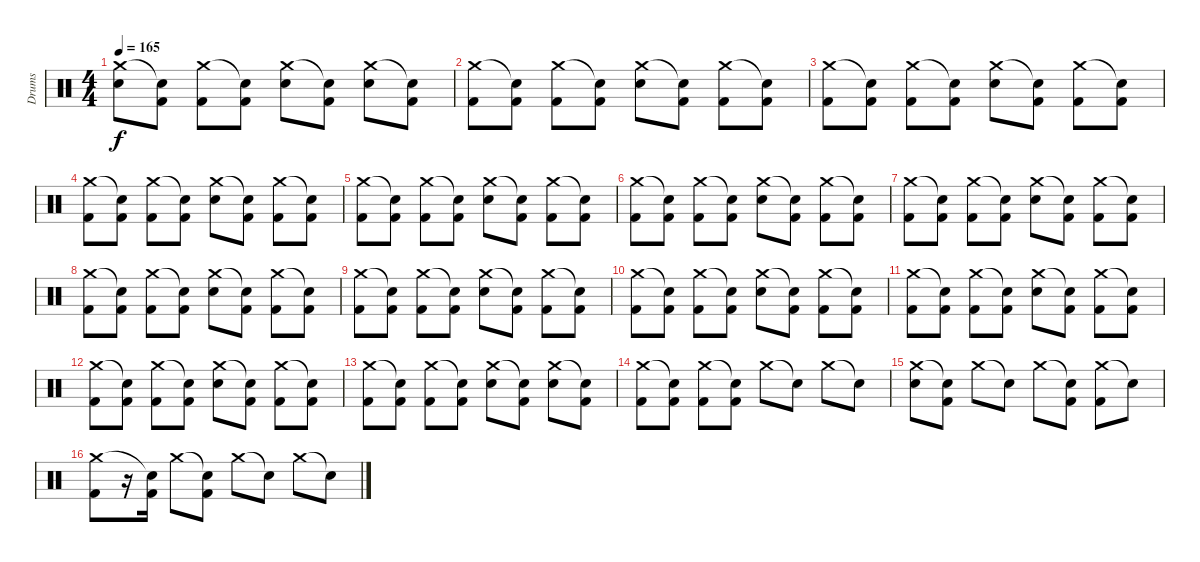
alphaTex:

\track ("Drums" "Drums") {instrument percussion}
\staff {score}
\articulation defaults
\ts (4 4)
\tempo 165
\clef neutral
\ks c
("Crash medium (hit)" "Electric Snare (hit)").8{dy f} ("Snare (hit)"{t} "Kick (hit) 2").8 ("Crash medium (hit)" "Kick (hit) 2").8 ("Snare (hit)"{t} "Kick (hit) 2").8 ("Crash medium (hit)" "Electric Snare (hit)").8 ("Snare (hit)"{t} "Kick (hit) 2").8 ("Crash medium (hit)" "Electric Snare (hit)").8 ("Snare (hit)"{t} "Kick (hit) 2").8 |
("Crash medium (hit)" "Kick (hit) 2").8 ("Snare (hit)"{t} "Kick (hit) 2").8 ("Crash medium (hit)" "Kick (hit) 2").8 ("Snare (hit)"{t} "Kick (hit) 2").8 ("Crash medium (hit)" "Electric Snare (hit)").8 ("Snare (hit)"{t} "Kick (hit) 2").8 ("Crash medium (hit)" "Kick (hit) 2").8 ("Snare (hit)"{t} "Kick (hit) 2").8 |
("Crash medium (hit)" "Kick (hit) 2").8 ("Snare (hit)"{t} "Kick (hit) 2").8 ("Crash medium (hit)" "Kick (hit) 2").8 ("Snare (hit)"{t} "Kick (hit) 2").8 ("Crash medium (hit)" "Electric Snare (hit)").8 ("Snare (hit)"{t} "Kick (hit) 2").8 ("Crash medium (hit)" "Kick (hit) 2").8 ("Snare (hit)"{t} "Kick (hit) 2").8 |
("Crash medium (hit)" "Kick (hit) 2").8 ("Snare (hit)"{t} "Kick (hit) 2").8 ("Crash medium (hit)" "Kick (hit) 2").8 ("Snare (hit)"{t} "Kick (hit) 2").8 ("Crash medium (hit)" "Electric Snare (hit)").8 ("Snare (hit)"{t} "Kick (hit) 2").8 ("Crash medium (hit)" "Kick (hit) 2").8 ("Snare (hit)"{t} "Kick (hit) 2").8 |
("Crash medium (hit)" "Kick (hit) 2").8 ("Snare (hit)"{t} "Kick (hit) 2").8 ("Crash medium (hit)" "Kick (hit) 2").8 ("Snare (hit)"{t} "Kick (hit) 2").8 ("Crash medium (hit)" "Electric Snare (hit)").8 ("Snare (hit)"{t} "Kick (hit) 2").8 ("Crash medium (hit)" "Kick (hit) 2").8 ("Snare (hit)"{t} "Kick (hit) 2").8 |
("Crash medium (hit)" "Kick (hit) 2").8 ("Snare (hit)"{t} "Kick (hit) 2").8 ("Crash medium (hit)" "Kick (hit) 2").8 ("Snare (hit)"{t} "Kick (hit) 2").8 ("Crash medium (hit)" "Electric Snare (hit)").8 ("Snare (hit)"{t} "Kick (hit) 2").8 ("Crash medium (hit)" "Kick (hit) 2").8 ("Snare (hit)"{t} "Kick (hit) 2").8 |
("Crash medium (hit)" "Kick (hit) 2").8 ("Snare (hit)"{t} "Kick (hit) 2").8 ("Crash medium (hit)" "Kick (hit) 2").8 ("Snare (hit)"{t} "Kick (hit) 2").8 ("Crash medium (hit)" "Electric Snare (hit)").8 ("Snare (hit)"{t} "Kick (hit) 2").8 ("Crash medium (hit)" "Kick (hit) 2").8 ("Snare (hit)"{t} "Kick (hit) 2").8 |
("Crash medium (hit)" "Kick (hit) 2").8 ("Snare (hit)"{t} "Kick (hit) 2").8 ("Crash medium (hit)" "Kick (hit) 2").8 ("Snare (hit)"{t} "Kick (hit) 2").8 ("Crash medium (hit)" "Electric Snare (hit)").8 ("Snare (hit)"{t} "Kick (hit) 2").8 ("Crash medium (hit)" "Kick (hit) 2").8 ("Snare (hit)"{t} "Kick (hit) 2").8 |
("Crash medium (hit)" "Kick (hit) 2").8 ("Snare (hit)"{t} "Kick (hit) 2").8 ("Crash medium (hit)" "Kick (hit) 2").8 ("Snare (hit)"{t} "Kick (hit) 2").8 ("Crash medium (hit)" "Electric Snare (hit)").8 ("Snare (hit)"{t} "Kick (hit) 2").8 ("Crash medium (hit)" "Kick (hit) 2").8 ("Snare (hit)"{t} "Kick (hit) 2").8 |
("Crash medium (hit)" "Kick (hit) 2").8 ("Snare (hit)"{t} "Kick (hit) 2").8 ("Crash medium (hit)" "Kick (hit) 2").8 ("Snare (hit)"{t} "Kick (hit) 2").8 ("Crash medium (hit)" "Electric Snare (hit)").8 ("Snare (hit)"{t} "Kick (hit) 2").8 ("Crash medium (hit)" "Kick (hit) 2").8 ("Snare (hit)"{t} "Kick (hit) 2").8 |
("Crash medium (hit)" "Kick (hit) 2").8 ("Snare (hit)"{t} "Kick (hit) 2").8 ("Crash medium (hit)" "Kick (hit) 2").8 ("Snare (hit)"{t} "Kick (hit) 2").8 ("Crash medium (hit)" "Electric Snare (hit)").8 ("Snare (hit)"{t} "Kick (hit) 2").8 ("Crash medium (hit)" "Kick (hit) 2").8 ("Snare (hit)"{t} "Kick (hit) 2").8 |
("Crash medium (hit)" "Kick (hit) 2").8 ("Snare (hit)"{t} "Kick (hit) 2").8 ("Crash medium (hit)" "Kick (hit) 2").8 ("Snare (hit)"{t} "Kick (hit) 2").8 ("Crash medium (hit)" "Electric Snare (hit)").8 ("Snare (hit)"{t} "Kick (hit) 2").8 ("Crash medium (hit)" "Kick (hit) 2").8 ("Snare (hit)"{t} "Kick (hit) 2").8 |
("Crash medium (hit)" "Kick (hit) 2").8 ("Snare (hit)"{t} "Kick (hit) 2").8 ("Crash medium (hit)" "Kick (hit) 2").8 ("Snare (hit)"{t} "Kick (hit) 2").8 ("Crash medium (hit)" "Electric Snare (hit)").8 ("Snare (hit)"{t} "Kick (hit) 2").8 ("Crash medium (hit)" "Electric Snare (hit)").8 ("Snare (hit)"{t} "Kick (hit) 2").8 |
("Crash medium (hit)" "Kick (hit) 2").8 ("Snare (hit)"{t} "Kick (hit) 2").8 ("Crash medium (hit)" "Kick (hit) 2").8 ("Snare (hit)"{t} "Kick (hit) 2").8 "Crash medium (hit)".8 "Snare (hit)"{t}.8 "Crash medium (hit)".8 "Snare (hit)"{t}.8 |
("Crash medium (hit)" "Electric Snare (hit)").8 ("Snare (hit)"{t} "Kick (hit) 2").8 "Crash medium (hit)".8 "Snare (hit)"{t}.8 "Crash medium (hit)".8 ("Snare (hit)"{t} "Kick (hit) 2").8 ("Crash medium (hit)" "Kick (hit) 2").8 "Snare (hit)"{t}.8 |
("Crash medium (hit)" "Kick (hit) 2").8 r.16 ("Snare (hit)"{t} "Kick (hit) 2").16 "Crash medium (hit)".8 ("Snare (hit)"{t} "Kick (hit) 2").8 "Crash medium (hit)".8 "Snare (hit)"{t}.8 "Crash medium (hit)".8 "Snare (hit)"{t}.8
